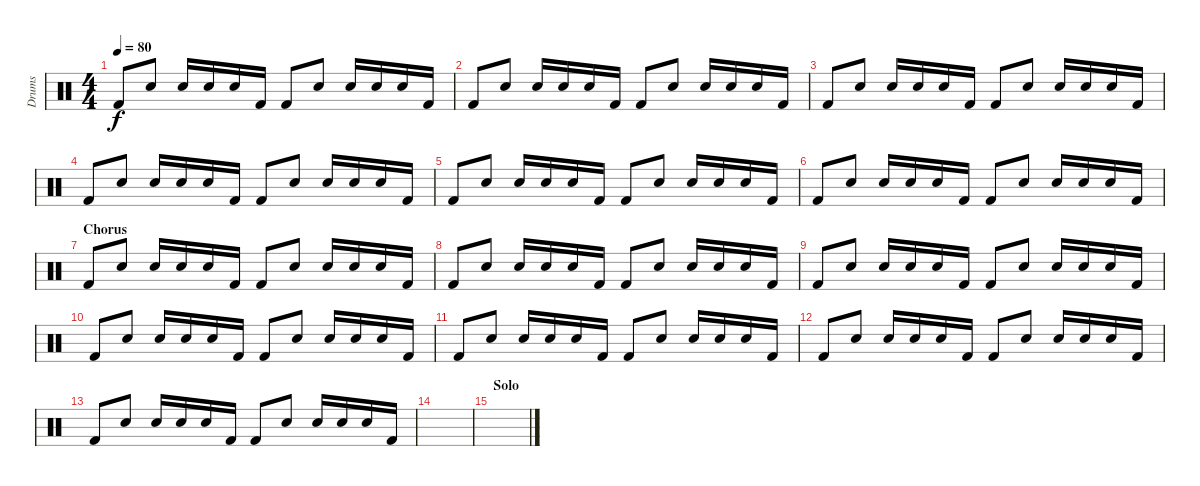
\track ("Drums" "Drums") {instrument percussion}
\staff {score}
\articulation defaults
\ts (4 4)
\tempo 80
\clef neutral
\ks c "Kick (hit) 2".8{dy f} "Electric Snare (hit)".8 "Snare (hit) 2".16 "Snare (hit) 2".16 "Electric Snare (hit)".16 "Kick (hit) 2".16 "Kick (hit) 2".8 "Electric Snare (hit)".8 "Snare (hit) 2".16 "Snare (hit) 2".16 "Electric Snare (hit)".16 "Kick (hit) 2".16
|
"Kick (hit) 2".8 "Electric Snare (hit)".8 "Snare (hit) 2".16 "Snare (hit) 2".16 "Electric Snare (hit)".16 "Kick (hit) 2".16 "Kick (hit) 2".8 "Electric Snare (hit)".8 "Snare (hit) 2".16 "Snare (hit) 2".16 "Electric Snare (hit)".16 "Kick (hit) 2".16 |
"Kick (hit) 2".8 "Electric Snare (hit)".8 "Snare (hit) 2".16 "Snare (hit) 2".16 "Electric Snare (hit)".16 "Kick (hit) 2".16 "Kick (hit) 2".8 "Electric Snare (hit)".8 "Snare (hit) 2".16 "Snare (hit) 2".16 "Electric Snare (hit)".16 "Kick (hit) 2".16 |
"Kick (hit) 2".8 "Electric Snare (hit)".8 "Snare (hit) 2".16 "Snare (hit) 2".16 "Electric Snare (hit)".16 "Kick (hit) 2".16 "Kick (hit) 2".8 "Electric Snare (hit)".8 "Snare (hit) 2".16 "Snare (hit) 2".16 "Electric Snare (hit)".16 "Kick (hit) 2".16 |
"Kick (hit) 2".8 "Electric Snare (hit)".8 "Snare (hit) 2".16 "Snare (hit) 2".16 "Electric Snare (hit)".16 "Kick (hit) 2".16 "Kick (hit) 2".8 "Electric Snare (hit)".8 "Snare (hit) 2".16 "Snare (hit) 2".16 "Electric Snare (hit)".16 "Kick (hit) 2".16 |
"Kick (hit) 2".8 "Electric Snare (hit)".8 "Snare (hit) 2".16 "Snare (hit) 2".16 "Electric Snare (hit)".16 "Kick (hit) 2".16 "Kick (hit) 2".8 "Electric Snare (hit)".8 "Snare (hit) 2".16 "Snare (hit) 2".16 "Electric Snare (hit)".16 "Kick (hit) 2".16 |
\section ("" "Chorus")
"Kick (hit) 2".8 "Electric Snare (hit)".8 "Snare (hit) 2".16 "Snare (hit) 2".16 "Electric Snare (hit)".16 "Kick (hit) 2".16 "Kick (hit) 2".8 "Electric Snare (hit)".8 "Snare (hit) 2".16 "Snare (hit) 2".16 "Electric Snare (hit)".16 "Kick (hit) 2".16 |
"Kick (hit) 2".8 "Electric Snare (hit)".8 "Snare (hit) 2".16 "Snare (hit) 2".16 "Electric Snare (hit)".16 "Kick (hit) 2".16 "Kick (hit) 2".8 "Electric Snare (hit)".8 "Snare (hit) 2".16 "Snare (hit) 2".16 "Electric Snare (hit)".16 "Kick (hit) 2".16 |
"Kick (hit) 2".8 "Electric Snare (hit)".8 "Snare (hit) 2".16 "Snare (hit) 2".16 "Electric Snare (hit)".16 "Kick (hit) 2".16 "Kick (hit) 2".8 "Electric Snare (hit)".8 "Snare (hit) 2".16 "Snare (hit) 2".16 "Electric Snare (hit)".16 "Kick (hit) 2".16 |
"Kick (hit) 2".8 "Electric Snare (hit)".8 "Snare (hit) 2".16 "Snare (hit) 2".16 "Electric Snare (hit)".16 "Kick (hit) 2".16 "Kick (hit) 2".8 "Electric Snare (hit)".8 "Snare (hit) 2".16 "Snare (hit) 2".16 "Electric Snare (hit)".16 "Kick (hit) 2".16 |
"Kick (hit) 2".8 "Electric Snare (hit)".8 "Snare (hit) 2".16 "Snare (hit) 2".16 "Electric Snare (hit)".16 "Kick (hit) 2".16 "Kick (hit) 2".8 "Electric Snare (hit)".8 "Snare (hit) 2".16 "Snare (hit) 2".16 "Electric Snare (hit)".16 "Kick (hit) 2".16 |
"Kick (hit) 2".8 "Electric Snare (hit)".8 "Snare (hit) 2".16 "Snare (hit) 2".16 "Electric Snare (hit)".16 "Kick (hit) 2".16 "Kick (hit) 2".8 "Electric Snare (hit)".8 "Snare (hit) 2".16 "Snare (hit) 2".16 "Electric Snare (hit)".16 "Kick (hit) 2".16 |
"Kick (hit) 2".8 "Electric Snare (hit)".8 "Snare (hit) 2".16 "Snare (hit) 2".16 "Electric Snare (hit)".16 "Kick (hit) 2".16 "Kick (hit) 2".8 "Electric Snare (hit)".8 "Snare (hit) 2".16 "Snare (hit) 2".16 "Electric Snare (hit)".16 "Kick (hit) 2".16 |
|
\section ("" "Solo")
